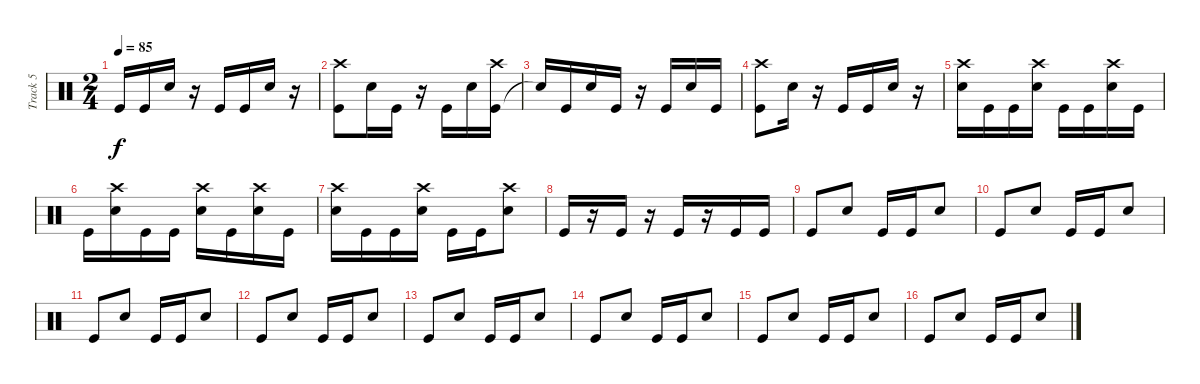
\track ("Track 5" "Track 5") {instrument percussion}
\staff {score}
\articulation defaults
\ts (2 4)
\tempo 85
\clef neutral
\ks c "Kick (hit)".16{dy f} "Kick (hit)".16 "Electric Snare (hit)".16
r.16 "Kick (hit)".16 "Kick (hit)".16 "Electric Snare (hit)".16 r.16 |
("Kick (hit)" "Crash high (hit)").8 "Electric Snare (hit)".16 "Kick (hit)".16 r.16 "Kick (hit)".16 "Electric Snare (hit)".16 ("Kick (hit)" "Crash high (hit)").16 |
"Snare (hit)"{t}.16 "Kick (hit)".16 "Electric Snare (hit)".16 "Kick (hit)".16 r.16 "Kick (hit)".16 "Electric Snare (hit)".16 "Kick (hit)".16 |
("Crash high (hit)" "Kick (hit)").8 "Electric Snare (hit)".16 r.16 "Kick (hit)".16 "Kick (hit)".16 "Electric Snare (hit)".16 r.16 |
("Electric Snare (hit)" "Crash high (hit)").16 "Kick (hit)".16 "Kick (hit)".16 ("Electric Snare (hit)" "Crash high (hit)").16 "Kick (hit)".16 "Kick (hit)".16 ("Electric Snare (hit)" "Crash high (hit)").16 "Kick (hit)".16 |
"Kick (hit)".16 ("Crash high (hit)" "Electric Snare (hit)").16 "Kick (hit)".16 "Kick (hit)".16 ("Crash high (hit)" "Electric Snare (hit)").16 "Kick (hit)".16 ("Crash high (hit)" "Electric Snare (hit)").16 "Kick (hit)".16 |
("Electric Snare (hit)" "Crash high (hit)").16 "Kick (hit)".16 "Kick (hit)".16 ("Electric Snare (hit)" "Crash high (hit)").16 "Kick (hit)".16 "Kick (hit)".16 ("Electric Snare (hit)" "Crash high (hit)").8 |
"Kick (hit)".16 r.16 "Kick (hit)".16 r.16 "Kick (hit)".16 r.16 "Kick (hit)".16 "Kick (hit)".16 |
"Kick (hit)".8 "Electric Snare (hit)".8 "Kick (hit)".16 "Kick (hit)".16 "Electric Snare (hit)".8 |
"Kick (hit)".8 "Electric Snare (hit)".8 "Kick (hit)".16 "Kick (hit)".16 "Electric Snare (hit)".8 |
"Kick (hit)".8 "Electric Snare (hit)".8 "Kick (hit)".16 "Kick (hit)".16 "Electric Snare (hit)".8 |
"Kick (hit)".8 "Electric Snare (hit)".8 "Kick (hit)".16 "Kick (hit)".16 "Electric Snare (hit)".8 |
"Kick (hit)".8 "Electric Snare (hit)".8 "Kick (hit)".16 "Kick (hit)".16 "Electric Snare (hit)".8 |
"Kick (hit)".8 "Electric Snare (hit)".8 "Kick (hit)".16 "Kick (hit)".16 "Electric Snare (hit)".8 |
"Kick (hit)".8 "Electric Snare (hit)".8 "Kick (hit)".16 "Kick (hit)".16 "Electric Snare (hit)".8 |
"Kick (hit)".8 "Electric Snare (hit)".8 "Kick (hit)".16 "Kick (hit)".16 "Electric Snare (hit)".8
